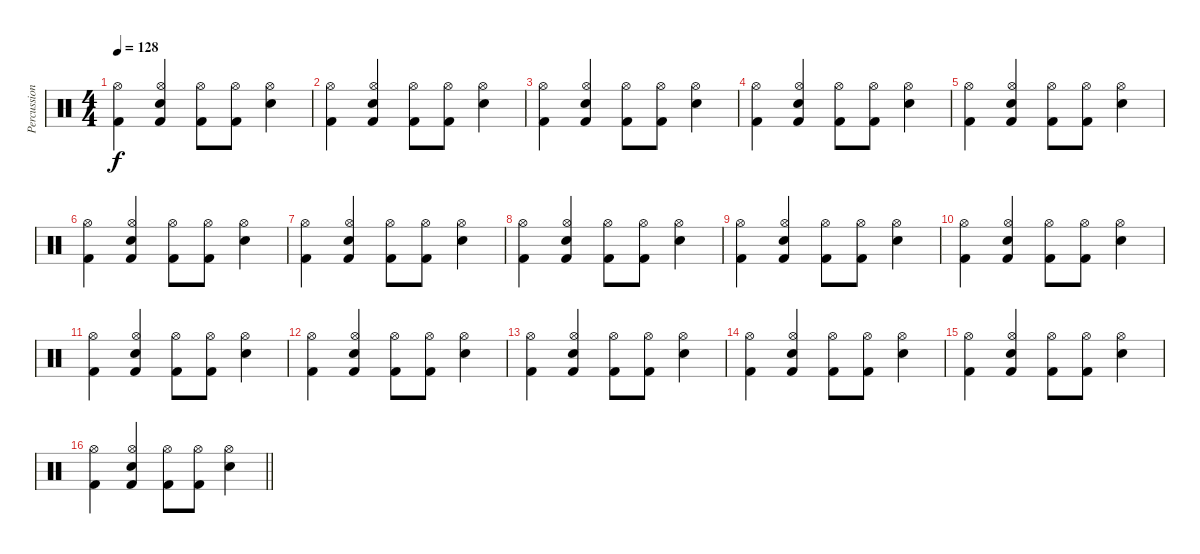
\track ("Percussion" "Percussion") {instrument percussion}
\staff {score}
\articulation defaults
\ts (4 4)
\tempo 128
\clef neutral
\ks c
("Kick (hit) 2" "Hi-Hat (open)").4{dy f} ("Kick (hit) 2" "Snare (hit) 2" "Hi-Hat (open)").4 ("Kick (hit) 2" "Hi-Hat (open)").8 ("Kick (hit) 2" "Hi-Hat (open)").8 ("Snare (hit) 2" "Hi-Hat (open)").4 |
("Kick (hit) 2" "Hi-Hat (open)").4 ("Kick (hit) 2" "Snare (hit) 2" "Hi-Hat (open)").4 ("Kick (hit) 2" "Hi-Hat (open)").8 ("Kick (hit) 2" "Hi-Hat (open)").8 ("Snare (hit) 2" "Hi-Hat (open)").4 |
("Kick (hit) 2" "Hi-Hat (open)").4 ("Kick (hit) 2" "Snare (hit) 2" "Hi-Hat (open)").4 ("Kick (hit) 2" "Hi-Hat (open)").8 ("Kick (hit) 2" "Hi-Hat (open)").8 ("Snare (hit) 2" "Hi-Hat (open)").4 |
("Kick (hit) 2" "Hi-Hat (open)").4 ("Kick (hit) 2" "Snare (hit) 2" "Hi-Hat (open)").4 ("Kick (hit) 2" "Hi-Hat (open)").8 ("Kick (hit) 2" "Hi-Hat (open)").8 ("Snare (hit) 2" "Hi-Hat (open)").4 |
("Kick (hit) 2" "Hi-Hat (open)").4 ("Kick (hit) 2" "Snare (hit) 2" "Hi-Hat (open)").4 ("Kick (hit) 2" "Hi-Hat (open)").8 ("Kick (hit) 2" "Hi-Hat (open)").8 ("Snare (hit) 2" "Hi-Hat (open)").4 |
("Kick (hit) 2" "Hi-Hat (open)").4 ("Kick (hit) 2" "Snare (hit) 2" "Hi-Hat (open)").4 ("Kick (hit) 2" "Hi-Hat (open)").8 ("Kick (hit) 2" "Hi-Hat (open)").8 ("Snare (hit) 2" "Hi-Hat (open)").4 |
("Kick (hit) 2" "Hi-Hat (open)").4 ("Kick (hit) 2" "Snare (hit) 2" "Hi-Hat (open)").4 ("Kick (hit) 2" "Hi-Hat (open)").8 ("Kick (hit) 2" "Hi-Hat (open)").8 ("Snare (hit) 2" "Hi-Hat (open)").4 |
("Kick (hit) 2" "Hi-Hat (open)").4 ("Kick (hit) 2" "Snare (hit) 2" "Hi-Hat (open)").4 ("Kick (hit) 2" "Hi-Hat (open)").8 ("Kick (hit) 2" "Hi-Hat (open)").8 ("Snare (hit) 2" "Hi-Hat (open)").4 |
("Kick (hit) 2" "Hi-Hat (open)").4 ("Kick (hit) 2" "Snare (hit) 2" "Hi-Hat (open)").4 ("Kick (hit) 2" "Hi-Hat (open)").8 ("Kick (hit) 2" "Hi-Hat (open)").8 ("Snare (hit) 2" "Hi-Hat (open)").4 |
("Kick (hit) 2" "Hi-Hat (open)").4 ("Kick (hit) 2" "Snare (hit) 2" "Hi-Hat (open)").4 ("Kick (hit) 2" "Hi-Hat (open)").8 ("Kick (hit) 2" "Hi-Hat (open)").8 ("Snare (hit) 2" "Hi-Hat (open)").4 |
("Kick (hit) 2" "Hi-Hat (open)").4 ("Kick (hit) 2" "Snare (hit) 2" "Hi-Hat (open)").4 ("Kick (hit) 2" "Hi-Hat (open)").8 ("Kick (hit) 2" "Hi-Hat (open)").8 ("Snare (hit) 2" "Hi-Hat (open)").4 |
("Kick (hit) 2" "Hi-Hat (open)").4 ("Kick (hit) 2" "Snare (hit) 2" "Hi-Hat (open)").4 ("Kick (hit) 2" "Hi-Hat (open)").8 ("Kick (hit) 2" "Hi-Hat (open)").8 ("Snare (hit) 2" "Hi-Hat (open)").4 |
("Kick (hit) 2" "Hi-Hat (open)").4 ("Kick (hit) 2" "Snare (hit) 2" "Hi-Hat (open)").4 ("Kick (hit) 2" "Hi-Hat (open)").8 ("Kick (hit) 2" "Hi-Hat (open)").8 ("Snare (hit) 2" "Hi-Hat (open)").4 |
("Kick (hit) 2" "Hi-Hat (open)").4 ("Kick (hit) 2" "Snare (hit) 2" "Hi-Hat (open)").4 ("Kick (hit) 2" "Hi-Hat (open)").8 ("Kick (hit) 2" "Hi-Hat (open)").8 ("Snare (hit) 2" "Hi-Hat (open)").4 |
("Kick (hit) 2" "Hi-Hat (open)").4 ("Kick (hit) 2" "Snare (hit) 2" "Hi-Hat (open)").4 ("Kick (hit) 2" "Hi-Hat (open)").8 ("Kick (hit) 2" "Hi-Hat (open)").8 ("Snare (hit) 2" "Hi-Hat (open)").4 |
\barLineRight lightlight
("Kick (hit) 2" "Hi-Hat (open)").4 ("Kick (hit) 2" "Snare (hit) 2" "Hi-Hat (open)").4 ("Kick (hit) 2" "Hi-Hat (open)").8 ("Kick (hit) 2" "Hi-Hat (open)").8 ("Snare (hit) 2" "Hi-Hat (open)").4
